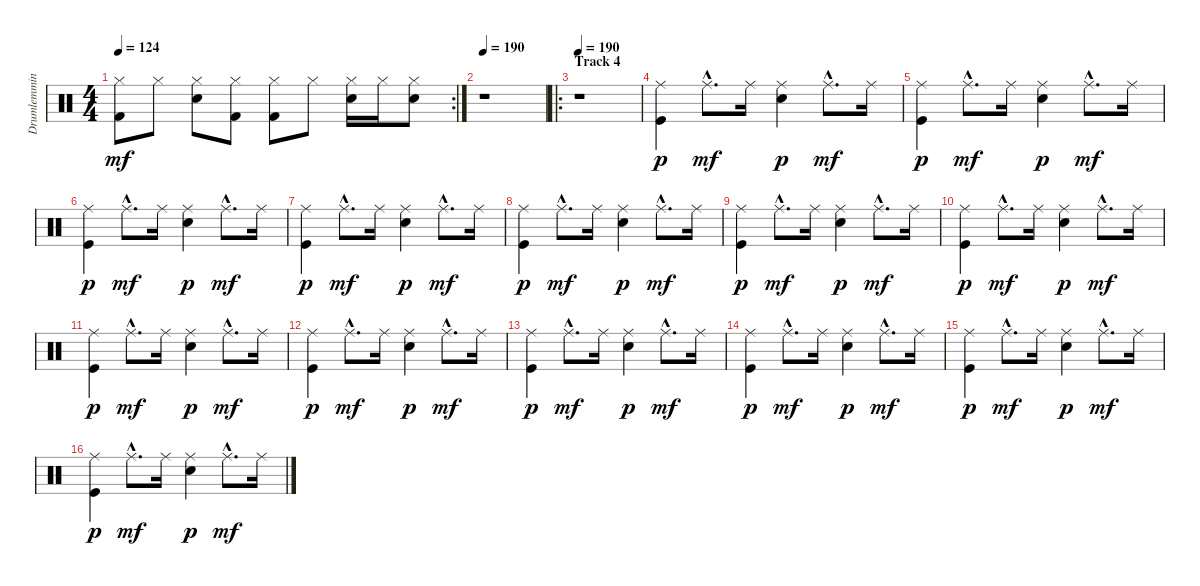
\track ("Drumlemming" "Drumlemmin") {instrument percussion}
\staff {score}
\articulation defaults
\rc 2
\ts (4 4)
\tempo 124
\clef neutral
\ks c
("Hi-Hat (closed)" "Kick (hit) 2").8{dy mf} "Hi-Hat (closed)".8 ("Snare (hit) 2" "Hi-Hat (closed)").8 ("Hi-Hat (closed)" "Kick (hit) 2").8 ("Hi-Hat (closed)" "Kick (hit) 2").8 "Hi-Hat (closed)".8 ("Snare (hit) 2" "Hi-Hat (closed)").16 "Hi-Hat (closed)".16 ("Snare (hit) 2" "Hi-Hat (closed)").8 |
\tempo 190
r.1 |
\ro
\section ("" "Track 4")
\tempo 190
r.1 |
("Kick (hit)" "Ride (middle)").4{dy p} "Ride (middle)"{hac}.8{d dy mf} "Ride (middle)".16 ("Snare (hit) 2" "Ride (middle)").4{dy p} "Ride (middle)"{hac}.8{d dy mf} "Ride (middle)".16 |
("Kick (hit)" "Ride (middle)").4{dy p} "Ride (middle)"{hac}.8{d dy mf} "Ride (middle)".16 ("Snare (hit) 2" "Ride (middle)").4{dy p} "Ride (middle)"{hac}.8{d dy mf} "Ride (middle)".16 |
("Kick (hit)" "Ride (middle)").4{dy p} "Ride (middle)"{hac}.8{d dy mf} "Ride (middle)".16 ("Snare (hit) 2" "Ride (middle)").4{dy p} "Ride (middle)"{hac}.8{d dy mf} "Ride (middle)".16 |
("Kick (hit)" "Ride (middle)").4{dy p} "Ride (middle)"{hac}.8{d dy mf} "Ride (middle)".16 ("Snare (hit) 2" "Ride (middle)").4{dy p} "Ride (middle)"{hac}.8{d dy mf} "Ride (middle)".16 |
("Kick (hit)" "Ride (middle)").4{dy p} "Ride (middle)"{hac}.8{d dy mf} "Ride (middle)".16 ("Snare (hit) 2" "Ride (middle)").4{dy p} "Ride (middle)"{hac}.8{d dy mf} "Ride (middle)".16 |
("Kick (hit)" "Ride (middle)").4{dy p} "Ride (middle)"{hac}.8{d dy mf} "Ride (middle)".16 ("Snare (hit) 2" "Ride (middle)").4{dy p} "Ride (middle)"{hac}.8{d dy mf} "Ride (middle)".16 |
("Kick (hit)" "Ride (middle)").4{dy p} "Ride (middle)"{hac}.8{d dy mf} "Ride (middle)".16 ("Snare (hit) 2" "Ride (middle)").4{dy p} "Ride (middle)"{hac}.8{d dy mf} "Ride (middle)".16 |
("Kick (hit)" "Ride (middle)").4{dy p} "Ride (middle)"{hac}.8{d dy mf} "Ride (middle)".16 ("Snare (hit) 2" "Ride (middle)").4{dy p} "Ride (middle)"{hac}.8{d dy mf} "Ride (middle)".16 |
("Kick (hit)" "Ride (middle)").4{dy p} "Ride (middle)"{hac}.8{d dy mf} "Ride (middle)".16 ("Snare (hit) 2" "Ride (middle)").4{dy p} "Ride (middle)"{hac}.8{d dy mf} "Ride (middle)".16 |
("Kick (hit)" "Ride (middle)").4{dy p} "Ride (middle)"{hac}.8{d dy mf} "Ride (middle)".16 ("Snare (hit) 2" "Ride (middle)").4{dy p} "Ride (middle)"{hac}.8{d dy mf} "Ride (middle)".16 |
("Kick (hit)" "Ride (middle)").4{dy p} "Ride (middle)"{hac}.8{d dy mf} "Ride (middle)".16 ("Snare (hit) 2" "Ride (middle)").4{dy p} "Ride (middle)"{hac}.8{d dy mf} "Ride (middle)".16 |
("Kick (hit)" "Ride (middle)").4{dy p} "Ride (middle)"{hac}.8{d dy mf} "Ride (middle)".16 ("Snare (hit) 2" "Ride (middle)").4{dy p} "Ride (middle)"{hac}.8{d dy mf} "Ride (middle)".16 |
("Kick (hit)" "Ride (middle)").4{dy p} "Ride (middle)"{hac}.8{d dy mf} "Ride (middle)".16 ("Snare (hit) 2" "Ride (middle)").4{dy p} "Ride (middle)"{hac}.8{d dy mf} "Ride (middle)".16
